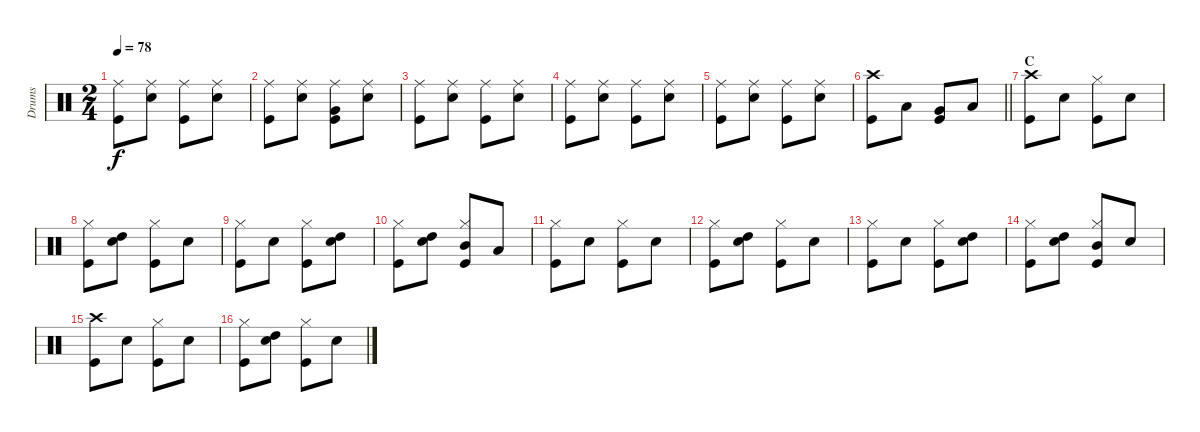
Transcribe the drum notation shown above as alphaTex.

\track ("Drums" "Drums") {instrument percussion}
\staff {score}
\articulation defaults
\ts (2 4)
\tempo 78
\clef neutral
\ks c
("Ride (middle)" "Kick (hit)").8{dy f} ("Ride (middle)" "Electric Snare (hit)").8 ("Ride (middle)" "Kick (hit)").8 ("Ride (middle)" "Electric Snare (hit)").8 |
("Ride (middle)" "Kick (hit)").8 ("Ride (middle)" "Electric Snare (hit)").8 ("Ride (middle)" "Very Low Tom (hit)" "Kick (hit)").8 ("Ride (middle)" "Electric Snare (hit)").8 |
("Ride (middle)" "Kick (hit)").8 ("Ride (middle)" "Electric Snare (hit)").8 ("Ride (middle)" "Kick (hit)").8 ("Ride (middle)" "Electric Snare (hit)").8 |
("Ride (middle)" "Kick (hit)").8 ("Ride (middle)" "Electric Snare (hit)").8 ("Ride (middle)" "Kick (hit)").8 ("Ride (middle)" "Electric Snare (hit)").8 |
("Ride (middle)" "Kick (hit)").8 ("Ride (middle)" "Electric Snare (hit)").8 ("Ride (middle)" "Kick (hit)").8 ("Ride (middle)" "Electric Snare (hit)").8 |
\barLineRight lightlight
("Crash high (hit)" "Kick (hit)").8 "Low Tom (hit)".8 ("Very Low Tom (hit)" "Kick (hit)").8 "Low Tom (hit)".8 |
\section ("" "C")
("Crash high (hit)" "Kick (hit)").8 "Electric Snare (hit)".8 ("Hi-Hat (closed)" "Kick (hit)").8 "Electric Snare (hit)".8 |
("Hi-Hat (closed)" "Kick (hit)").8 ("High Tom (hit)" "Electric Snare (hit)").8 ("Hi-Hat (closed)" "Kick (hit)").8 "Electric Snare (hit)".8 |
("Hi-Hat (closed)" "Kick (hit)").8 "Electric Snare (hit)".8 ("Hi-Hat (closed)" "Kick (hit)").8 ("High Tom (hit)" "Electric Snare (hit)").8 |
("Hi-Hat (closed)" "Kick (hit)").8 ("High Tom (hit)" "Electric Snare (hit)").8 ("Hi-Hat (closed)" "Mid Tom (hit)" "Kick (hit)").8 "Low Tom (hit)".8 |
("Hi-Hat (closed)" "Kick (hit)").8 "Electric Snare (hit)".8 ("Hi-Hat (closed)" "Kick (hit)").8 "Electric Snare (hit)".8 |
("Hi-Hat (closed)" "Kick (hit)").8 ("High Tom (hit)" "Electric Snare (hit)").8 ("Hi-Hat (closed)" "Kick (hit)").8 "Electric Snare (hit)".8 |
("Hi-Hat (closed)" "Kick (hit)").8 "Electric Snare (hit)".8 ("Hi-Hat (closed)" "Kick (hit)").8 ("High Tom (hit)" "Electric Snare (hit)").8 |
("Hi-Hat (closed)" "Kick (hit)").8 ("High Tom (hit)" "Electric Snare (hit)").8 ("Hi-Hat (closed)" "Mid Tom (hit)" "Kick (hit)").8 "Electric Snare (hit)".8 |
("Crash high (hit)" "Kick (hit)").8 "Electric Snare (hit)".8 ("Hi-Hat (closed)" "Kick (hit)").8 "Electric Snare (hit)".8 |
("Hi-Hat (closed)" "Kick (hit)").8 ("High Tom (hit)" "Electric Snare (hit)").8 ("Hi-Hat (closed)" "Kick (hit)").8 "Electric Snare (hit)".8
